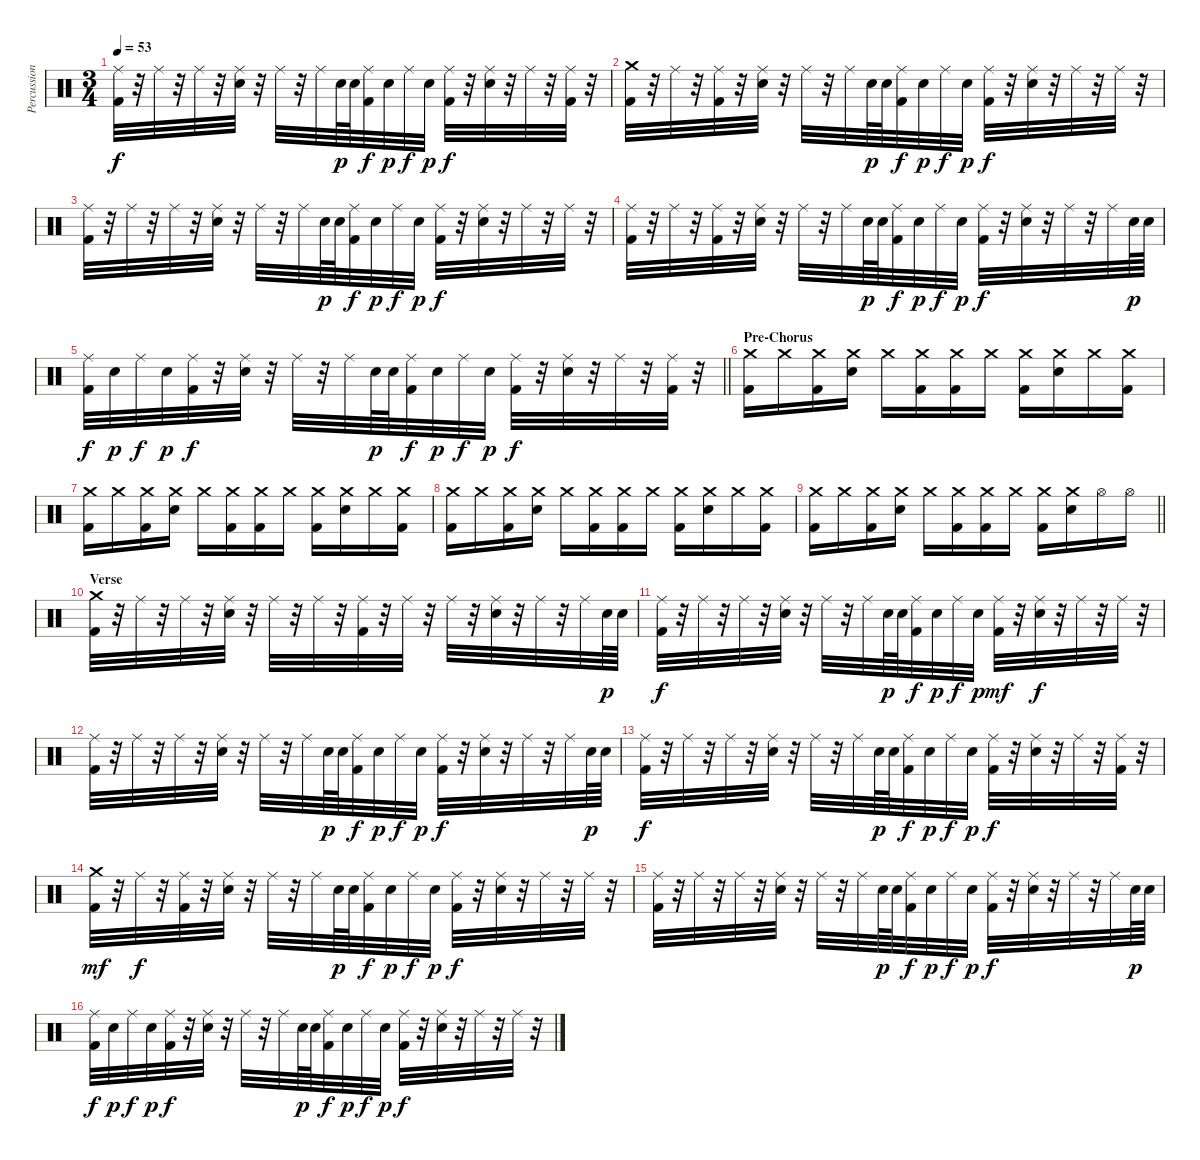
\track ("Percussion" "Percussion") {instrument percussion}
\staff {score}
\articulation defaults
\ts (3 4)
\tempo 53
\clef neutral
\ks c
("Ride (middle)" "Kick (hit) 2").32{dy f} r.32 "Ride (middle)".32 r.32 "Ride (middle)".32 r.32 ("Ride (middle)" "Snare (hit) 2").32 r.32 "Ride (middle)".32 r.32 "Ride (middle)".32 "Snare (hit) 2".64{dy p} "Snare (hit) 2".64 ("Ride (middle)" "Kick (hit) 2").32{dy f} "Snare (hit) 2".32{dy p} "Ride (middle)".32{dy f} "Snare (hit) 2".32{dy p} ("Ride (middle)" "Kick (hit) 2").32{dy f} r.32 ("Ride (middle)" "Snare (hit) 2").32 r.32 "Ride (middle)".32 r.32 ("Ride (middle)" "Kick (hit) 2").32 r.32 |
("Crash medium (hit)" "Kick (hit) 2").32 r.32 "Ride (middle)".32 r.32 ("Ride (middle)" "Kick (hit) 2").32 r.32 ("Ride (middle)" "Snare (hit) 2").32 r.32 "Ride (middle)".32 r.32 "Ride (middle)".32 "Snare (hit) 2".64{dy p} "Snare (hit) 2".64 ("Ride (middle)" "Kick (hit) 2").32{dy f} "Snare (hit) 2".32{dy p} "Ride (middle)".32{dy f} "Snare (hit) 2".32{dy p} ("Ride (middle)" "Kick (hit) 2").32{dy f} r.32 ("Ride (middle)" "Snare (hit) 2").32 r.32 "Ride (middle)".32 r.32 "Ride (middle)".32 r.32 |
("Ride (middle)" "Kick (hit) 2").32 r.32 "Ride (middle)".32 r.32 "Ride (middle)".32 r.32 ("Ride (middle)" "Snare (hit) 2").32 r.32 "Ride (middle)".32 r.32 "Ride (middle)".32 "Snare (hit) 2".64{dy p} "Snare (hit) 2".64 ("Ride (middle)" "Kick (hit) 2").32{dy f} "Snare (hit) 2".32{dy p} "Ride (middle)".32{dy f} "Snare (hit) 2".32{dy p} ("Ride (middle)" "Kick (hit) 2").32{dy f} r.32 ("Ride (middle)" "Snare (hit) 2").32 r.32 "Ride (middle)".32 r.32 "Ride (middle)".32 r.32 |
("Ride (middle)" "Kick (hit) 2").32 r.32 "Ride (middle)".32 r.32 ("Ride (middle)" "Kick (hit) 2").32 r.32 ("Ride (middle)" "Snare (hit) 2").32 r.32 "Ride (middle)".32 r.32 "Ride (middle)".32 "Snare (hit) 2".64{dy p} "Snare (hit) 2".64 ("Ride (middle)" "Kick (hit) 2").32{dy f} "Snare (hit) 2".32{dy p} "Ride (middle)".32{dy f} "Snare (hit) 2".32{dy p} ("Ride (middle)" "Kick (hit) 2").32{dy f} r.32 ("Ride (middle)" "Snare (hit) 2").32 r.32 "Ride (middle)".32 r.32 "Ride (middle)".32 "Snare (hit) 2".64{dy p} "Snare (hit) 2".64 |
\barLineRight lightlight
("Ride (middle)" "Kick (hit) 2").32{dy f} "Snare (hit) 2".32{dy p} "Ride (middle)".32{dy f} "Snare (hit) 2".32{dy p} ("Ride (middle)" "Kick (hit) 2").32{dy f} r.32 ("Ride (middle)" "Snare (hit) 2").32 r.32 "Ride (middle)".32 r.32 "Ride (middle)".32 "Snare (hit) 2".64{dy p} "Snare (hit) 2".64 ("Ride (middle)" "Kick (hit) 2").32{dy f} "Snare (hit) 2".32{dy p} "Ride (middle)".32{dy f} "Snare (hit) 2".32{dy p} ("Ride (middle)" "Kick (hit) 2").32{dy f} r.32 ("Ride (middle)" "Snare (hit) 2").32 r.32 "Ride (middle)".32 r.32 ("Ride (middle)" "Kick (hit) 2").32 r.32 |
\section ("" "Pre-Chorus")
("Crash medium (hit)" "Kick (hit) 2").16 "Crash medium (hit)".16 ("Crash medium (hit)" "Kick (hit) 2").16 ("Crash medium (hit)" "Snare (hit) 2").16 "Crash medium (hit)".16 ("Crash medium (hit)" "Kick (hit) 2").16 ("Crash medium (hit)" "Kick (hit) 2").16 "Crash medium (hit)".16 ("Crash medium (hit)" "Kick (hit) 2").16 ("Crash medium (hit)" "Snare (hit) 2").16 "Crash medium (hit)".16 ("Crash medium (hit)" "Kick (hit) 2").16 |
("Crash medium (hit)" "Kick (hit) 2").16 "Crash medium (hit)".16 ("Crash medium (hit)" "Kick (hit) 2").16 ("Crash medium (hit)" "Snare (hit) 2").16 "Crash medium (hit)".16 ("Crash medium (hit)" "Kick (hit) 2").16 ("Crash medium (hit)" "Kick (hit) 2").16 "Crash medium (hit)".16 ("Crash medium (hit)" "Kick (hit) 2").16 ("Crash medium (hit)" "Snare (hit) 2").16 "Crash medium (hit)".16 ("Crash medium (hit)" "Kick (hit) 2").16 |
("Crash medium (hit)" "Kick (hit) 2").16 "Crash medium (hit)".16 ("Crash medium (hit)" "Kick (hit) 2").16 ("Crash medium (hit)" "Snare (hit) 2").16 "Crash medium (hit)".16 ("Crash medium (hit)" "Kick (hit) 2").16 ("Crash medium (hit)" "Kick (hit) 2").16 "Crash medium (hit)".16 ("Crash medium (hit)" "Kick (hit) 2").16 ("Crash medium (hit)" "Snare (hit) 2").16 "Crash medium (hit)".16 ("Crash medium (hit)" "Kick (hit) 2").16 |
\barLineRight lightlight
("Crash medium (hit)" "Kick (hit) 2").16 "Crash medium (hit)".16 ("Crash medium (hit)" "Kick (hit) 2").16 ("Crash medium (hit)" "Snare (hit) 2").16 "Crash medium (hit)".16 ("Crash medium (hit)" "Kick (hit) 2").16 ("Crash medium (hit)" "Kick (hit) 2").16 "Crash medium (hit)".16 ("Crash medium (hit)" "Kick (hit) 2").16 ("Crash medium (hit)" "Snare (hit) 2").16 "Hi-Hat (open)".16 "Hi-Hat (open)".16 |
\section ("" "Verse")
("Crash medium (hit)" "Kick (hit) 2").32 r.32 "Ride (middle)".32 r.32 "Ride (middle)".32 r.32 ("Ride (middle)" "Snare (hit) 2").32 r.32 "Ride (middle)".32 r.32 "Ride (middle)".32 r.32 ("Ride (middle)" "Kick (hit) 2").32 r.32 "Ride (middle)".32 r.32 "Ride (middle)".32 r.32 ("Ride (middle)" "Snare (hit) 2").32 r.32 "Ride (middle)".32 r.32 "Ride (middle)".32 "Snare (hit) 2".64{dy p} "Snare (hit) 2".64 |
("Ride (middle)" "Kick (hit) 2").32{dy f} r.32 "Ride (middle)".32 r.32 "Ride (middle)".32 r.32 ("Ride (middle)" "Snare (hit) 2").32 r.32 "Ride (middle)".32 r.32 "Ride (middle)".32 "Snare (hit) 2".64{dy p} "Snare (hit) 2".64 ("Ride (middle)" "Kick (hit) 2").32{dy f} "Snare (hit) 2".32{dy p} "Ride (middle)".32{dy f} "Snare (hit) 2".32{dy p} ("Ride (middle)" "Kick (hit) 2").32{dy mf} r.32 ("Ride (middle)" "Snare (hit) 2").32{dy f} r.32 "Ride (middle)".32 r.32 "Ride (middle)".32 r.32 |
("Ride (middle)" "Kick (hit) 2").32 r.32 "Ride (middle)".32 r.32 "Ride (middle)".32 r.32 ("Ride (middle)" "Snare (hit) 2").32 r.32 "Ride (middle)".32 r.32 "Ride (middle)".32 "Snare (hit) 2".64{dy p} "Snare (hit) 2".64 ("Ride (middle)" "Kick (hit) 2").32{dy f} "Snare (hit) 2".32{dy p} "Ride (middle)".32{dy f} "Snare (hit) 2".32{dy p} ("Ride (middle)" "Kick (hit) 2").32{dy f} r.32 ("Ride (middle)" "Snare (hit) 2").32 r.32 "Ride (middle)".32 r.32 "Ride (middle)".32 "Snare (hit) 2".64{dy p} "Snare (hit) 2".64 |
("Ride (middle)" "Kick (hit) 2").32{dy f} r.32 "Ride (middle)".32 r.32 "Ride (middle)".32 r.32 ("Ride (middle)" "Snare (hit) 2").32 r.32 "Ride (middle)".32 r.32 "Ride (middle)".32 "Snare (hit) 2".64{dy p} "Snare (hit) 2".64 ("Ride (middle)" "Kick (hit) 2").32{dy f} "Snare (hit) 2".32{dy p} "Ride (middle)".32{dy f} "Snare (hit) 2".32{dy p} ("Ride (middle)" "Kick (hit) 2").32{dy f} r.32 ("Ride (middle)" "Snare (hit) 2").32 r.32 "Ride (middle)".32 r.32 ("Ride (middle)" "Kick (hit) 2").32 r.32 |
("Crash medium (hit)" "Kick (hit) 2").32{dy mf} r.32 "Ride (middle)".32{dy f} r.32 ("Ride (middle)" "Kick (hit) 2").32 r.32 ("Ride (middle)" "Snare (hit) 2").32 r.32 "Ride (middle)".32 r.32 "Ride (middle)".32 "Snare (hit) 2".64{dy p} "Snare (hit) 2".64 ("Ride (middle)" "Kick (hit) 2").32{dy f} "Snare (hit) 2".32{dy p} "Ride (middle)".32{dy f} "Snare (hit) 2".32{dy p} ("Ride (middle)" "Kick (hit) 2").32{dy f} r.32 ("Ride (middle)" "Snare (hit) 2").32 r.32 "Ride (middle)".32 r.32 "Ride (middle)".32 r.32 |
("Ride (middle)" "Kick (hit) 2").32 r.32 "Ride (middle)".32 r.32 "Ride (middle)".32 r.32 ("Ride (middle)" "Snare (hit) 2").32 r.32 "Ride (middle)".32 r.32 "Ride (middle)".32 "Snare (hit) 2".64{dy p} "Snare (hit) 2".64 ("Ride (middle)" "Kick (hit) 2").32{dy f} "Snare (hit) 2".32{dy p} "Ride (middle)".32{dy f} "Snare (hit) 2".32{dy p} ("Ride (middle)" "Kick (hit) 2").32{dy f} r.32 ("Ride (middle)" "Snare (hit) 2").32 r.32 "Ride (middle)".32 r.32 "Ride (middle)".32 "Snare (hit) 2".64{dy p} "Snare (hit) 2".64 |
("Ride (middle)" "Kick (hit) 2").32{dy f} "Snare (hit) 2".32{dy p} "Ride (middle)".32{dy f} "Snare (hit) 2".32{dy p} ("Ride (middle)" "Kick (hit) 2").32{dy f} r.32 ("Ride (middle)" "Snare (hit) 2").32 r.32 "Ride (middle)".32 r.32 "Ride (middle)".32 "Snare (hit) 2".64{dy p} "Snare (hit) 2".64 ("Ride (middle)" "Kick (hit) 2").32{dy f} "Snare (hit) 2".32{dy p} "Ride (middle)".32{dy f} "Snare (hit) 2".32{dy p} ("Ride (middle)" "Kick (hit) 2").32{dy f} r.32 ("Ride (middle)" "Snare (hit) 2").32 r.32 "Ride (middle)".32 r.32 "Ride (middle)".32 r.32
